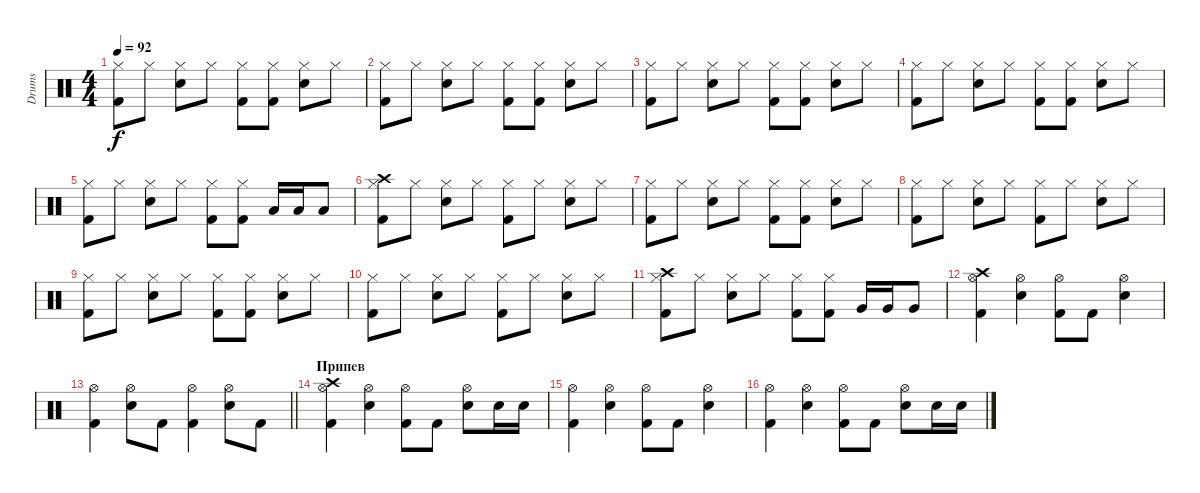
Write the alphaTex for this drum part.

\track ("Drums" "Drums") {instrument percussion}
\staff {score}
\articulation defaults
\ts (4 4)
\tempo 92
\clef neutral
\ks c
("Kick (hit) 2" "Hi-Hat (closed)").8{dy f} "Hi-Hat (closed)".8 ("Electric Snare (hit)" "Hi-Hat (closed)").8 "Hi-Hat (closed)".8 ("Kick (hit) 2" "Hi-Hat (closed)").8 ("Kick (hit) 2" "Hi-Hat (closed)").8 ("Electric Snare (hit)" "Hi-Hat (closed)").8 "Hi-Hat (closed)".8 |
("Kick (hit) 2" "Hi-Hat (closed)").8 "Hi-Hat (closed)".8 ("Electric Snare (hit)" "Hi-Hat (closed)").8 "Hi-Hat (closed)".8 ("Kick (hit) 2" "Hi-Hat (closed)").8 ("Kick (hit) 2" "Hi-Hat (closed)").8 ("Electric Snare (hit)" "Hi-Hat (closed)").8 "Hi-Hat (closed)".8 |
("Kick (hit) 2" "Hi-Hat (closed)").8 "Hi-Hat (closed)".8 ("Electric Snare (hit)" "Hi-Hat (closed)").8 "Hi-Hat (closed)".8 ("Kick (hit) 2" "Hi-Hat (closed)").8 ("Kick (hit) 2" "Hi-Hat (closed)").8 ("Electric Snare (hit)" "Hi-Hat (closed)").8 "Hi-Hat (closed)".8 |
("Kick (hit) 2" "Hi-Hat (closed)").8 "Hi-Hat (closed)".8 ("Electric Snare (hit)" "Hi-Hat (closed)").8 "Hi-Hat (closed)".8 ("Kick (hit) 2" "Hi-Hat (closed)").8 ("Kick (hit) 2" "Hi-Hat (closed)").8 ("Electric Snare (hit)" "Hi-Hat (closed)").8 "Hi-Hat (closed)".8 |
("Kick (hit) 2" "Hi-Hat (closed)").8 "Hi-Hat (closed)".8 ("Electric Snare (hit)" "Hi-Hat (closed)").8 "Hi-Hat (closed)".8 ("Kick (hit) 2" "Hi-Hat (closed)").8 ("Kick (hit) 2" "Hi-Hat (closed)").8 "Low Tom (hit)".16 "Low Tom (hit)".16 "Low Tom (hit)".8 |
("Kick (hit) 2" "Hi-Hat (closed)" "Crash high (hit)").8 "Hi-Hat (closed)".8 ("Electric Snare (hit)" "Hi-Hat (closed)").8 "Hi-Hat (closed)".8 ("Kick (hit) 2" "Hi-Hat (closed)").8 "Hi-Hat (closed)".8 ("Electric Snare (hit)" "Hi-Hat (closed)").8 "Hi-Hat (closed)".8 |
("Kick (hit) 2" "Hi-Hat (closed)").8 "Hi-Hat (closed)".8 ("Electric Snare (hit)" "Hi-Hat (closed)").8 "Hi-Hat (closed)".8 ("Kick (hit) 2" "Hi-Hat (closed)").8 ("Kick (hit) 2" "Hi-Hat (closed)").8 ("Electric Snare (hit)" "Hi-Hat (closed)").8 "Hi-Hat (closed)".8 |
("Kick (hit) 2" "Hi-Hat (closed)").8 "Hi-Hat (closed)".8 ("Electric Snare (hit)" "Hi-Hat (closed)").8 "Hi-Hat (closed)".8 ("Kick (hit) 2" "Hi-Hat (closed)").8 "Hi-Hat (closed)".8 ("Electric Snare (hit)" "Hi-Hat (closed)").8 "Hi-Hat (closed)".8 |
("Kick (hit) 2" "Hi-Hat (closed)").8 "Hi-Hat (closed)".8 ("Electric Snare (hit)" "Hi-Hat (closed)").8 "Hi-Hat (closed)".8 ("Kick (hit) 2" "Hi-Hat (closed)").8 ("Kick (hit) 2" "Hi-Hat (closed)").8 ("Electric Snare (hit)" "Hi-Hat (closed)").8 "Hi-Hat (closed)".8 |
("Kick (hit) 2" "Hi-Hat (closed)").8 "Hi-Hat (closed)".8 ("Electric Snare (hit)" "Hi-Hat (closed)").8 "Hi-Hat (closed)".8 ("Kick (hit) 2" "Hi-Hat (closed)").8 "Hi-Hat (closed)".8 ("Electric Snare (hit)" "Hi-Hat (closed)").8 "Hi-Hat (closed)".8 |
("Kick (hit) 2" "Hi-Hat (closed)" "Crash high (hit)").8 "Hi-Hat (closed)".8 ("Electric Snare (hit)" "Hi-Hat (closed)").8 "Hi-Hat (closed)".8 ("Kick (hit) 2" "Hi-Hat (closed)").8 ("Kick (hit) 2" "Hi-Hat (closed)").8 "Very Low Tom (hit)".16 "Very Low Tom (hit)".16 "Very Low Tom (hit)".8 |
("Kick (hit) 2" "Hi-Hat (open)" "Crash high (hit)").4 ("Electric Snare (hit)" "Hi-Hat (open)").4 ("Kick (hit) 2" "Hi-Hat (open)").8 "Kick (hit) 2".8 ("Electric Snare (hit)" "Hi-Hat (open)").4 |
\barLineRight lightlight
("Kick (hit) 2" "Hi-Hat (open)").4 ("Electric Snare (hit)" "Hi-Hat (open)").8 "Kick (hit) 2".8 ("Kick (hit) 2" "Hi-Hat (open)").4 ("Electric Snare (hit)" "Hi-Hat (open)").8 "Kick (hit) 2".8 |
\section ("" "Припев")
("Kick (hit) 2" "Hi-Hat (open)" "Crash high (hit)").4 ("Electric Snare (hit)" "Hi-Hat (open)").4 ("Kick (hit) 2" "Hi-Hat (open)").8 "Kick (hit) 2".8 ("Electric Snare (hit)" "Hi-Hat (open)").8 "Electric Snare (hit)".16 "Electric Snare (hit)".16 |
("Kick (hit) 2" "Hi-Hat (open)").4 ("Electric Snare (hit)" "Hi-Hat (open)").4 ("Kick (hit) 2" "Hi-Hat (open)").8 "Kick (hit) 2".8 ("Electric Snare (hit)" "Hi-Hat (open)").4 |
("Kick (hit) 2" "Hi-Hat (open)").4 ("Electric Snare (hit)" "Hi-Hat (open)").4 ("Kick (hit) 2" "Hi-Hat (open)").8 "Kick (hit) 2".8 ("Electric Snare (hit)" "Hi-Hat (open)").8 "Electric Snare (hit)".16 "Electric Snare (hit)".16
